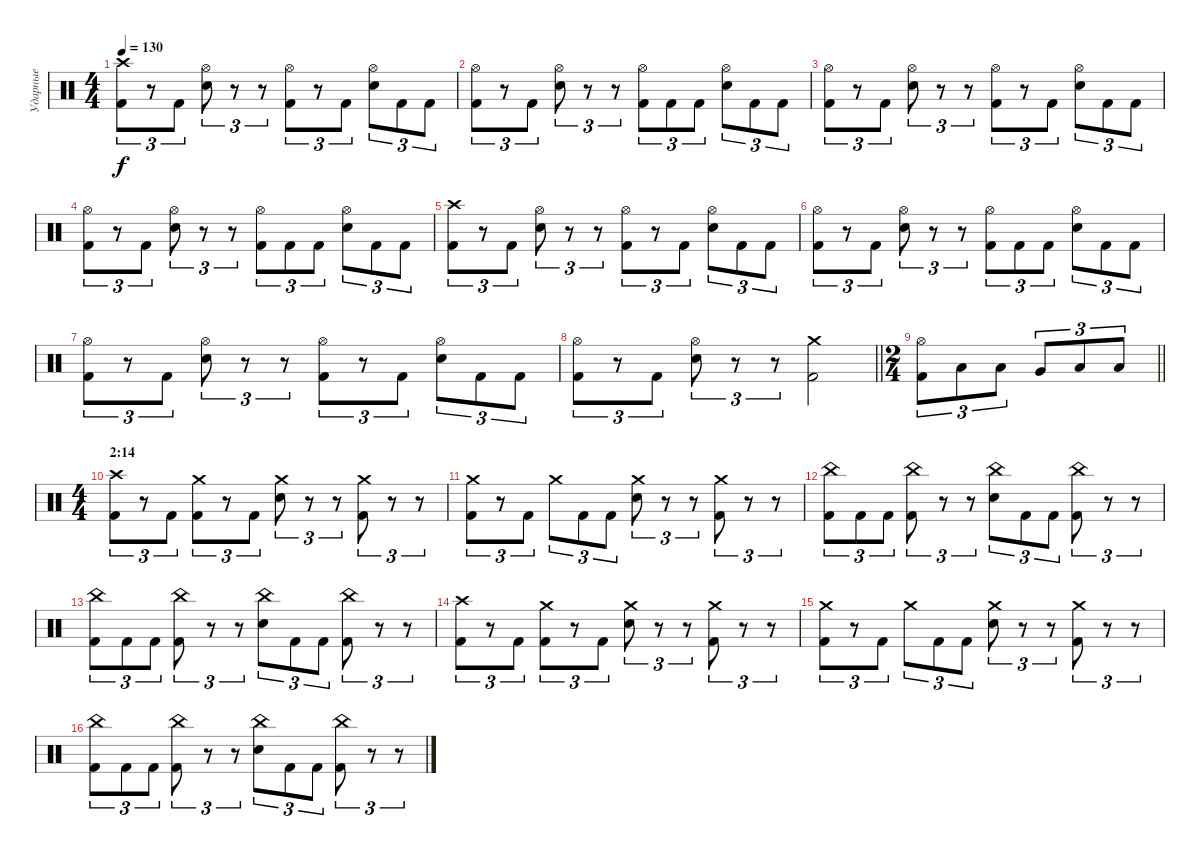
\track ("Ударные" "Ударные") {instrument percussion}
\staff {score}
\articulation defaults
\ts (4 4)
\tempo 130
\clef neutral
\ks c
("Crash high (hit)" "Kick (hit) 2").8{tu (3 2) dy f} r.8{tu (3 2)} "Kick (hit) 2".8{tu (3 2)} ("Hi-Hat (open)" "Electric Snare (hit)").8{tu (3 2)} r.8{tu (3 2)} r.8{tu (3 2)} ("Hi-Hat (open)" "Kick (hit) 2").8{tu (3 2)} r.8{tu (3 2)} "Kick (hit) 2".8{tu (3 2)} ("Hi-Hat (open)" "Electric Snare (hit)").8{tu (3 2)} "Kick (hit) 2".8{tu (3 2)} "Kick (hit) 2".8{tu (3 2)} |
("Hi-Hat (open)" "Kick (hit) 2").8{tu (3 2)} r.8{tu (3 2)} "Kick (hit) 2".8{tu (3 2)} ("Hi-Hat (open)" "Electric Snare (hit)").8{tu (3 2)} r.8{tu (3 2)} r.8{tu (3 2)} ("Hi-Hat (open)" "Kick (hit) 2").8{tu (3 2)} "Kick (hit) 2".8{tu (3 2)} "Kick (hit) 2".8{tu (3 2)} ("Hi-Hat (open)" "Electric Snare (hit)").8{tu (3 2)} "Kick (hit) 2".8{tu (3 2)} "Kick (hit) 2".8{tu (3 2)} |
("Hi-Hat (open)" "Kick (hit) 2").8{tu (3 2)} r.8{tu (3 2)} "Kick (hit) 2".8{tu (3 2)} ("Hi-Hat (open)" "Electric Snare (hit)").8{tu (3 2)} r.8{tu (3 2)} r.8{tu (3 2)} ("Hi-Hat (open)" "Kick (hit) 2").8{tu (3 2)} r.8{tu (3 2)} "Kick (hit) 2".8{tu (3 2)} ("Hi-Hat (open)" "Electric Snare (hit)").8{tu (3 2)} "Kick (hit) 2".8{tu (3 2)} "Kick (hit) 2".8{tu (3 2)} |
("Hi-Hat (open)" "Kick (hit) 2").8{tu (3 2)} r.8{tu (3 2)} "Kick (hit) 2".8{tu (3 2)} ("Hi-Hat (open)" "Electric Snare (hit)").8{tu (3 2)} r.8{tu (3 2)} r.8{tu (3 2)} ("Hi-Hat (open)" "Kick (hit) 2").8{tu (3 2)} "Kick (hit) 2".8{tu (3 2)} "Kick (hit) 2".8{tu (3 2)} ("Hi-Hat (open)" "Electric Snare (hit)").8{tu (3 2)} "Kick (hit) 2".8{tu (3 2)} "Kick (hit) 2".8{tu (3 2)} |
("Crash high (hit)" "Kick (hit) 2").8{tu (3 2)} r.8{tu (3 2)} "Kick (hit) 2".8{tu (3 2)} ("Hi-Hat (open)" "Electric Snare (hit)").8{tu (3 2)} r.8{tu (3 2)} r.8{tu (3 2)} ("Hi-Hat (open)" "Kick (hit) 2").8{tu (3 2)} r.8{tu (3 2)} "Kick (hit) 2".8{tu (3 2)} ("Hi-Hat (open)" "Electric Snare (hit)").8{tu (3 2)} "Kick (hit) 2".8{tu (3 2)} "Kick (hit) 2".8{tu (3 2)} |
("Hi-Hat (open)" "Kick (hit) 2").8{tu (3 2)} r.8{tu (3 2)} "Kick (hit) 2".8{tu (3 2)} ("Hi-Hat (open)" "Electric Snare (hit)").8{tu (3 2)} r.8{tu (3 2)} r.8{tu (3 2)} ("Hi-Hat (open)" "Kick (hit) 2").8{tu (3 2)} "Kick (hit) 2".8{tu (3 2)} "Kick (hit) 2".8{tu (3 2)} ("Hi-Hat (open)" "Electric Snare (hit)").8{tu (3 2)} "Kick (hit) 2".8{tu (3 2)} "Kick (hit) 2".8{tu (3 2)} |
("Hi-Hat (open)" "Kick (hit) 2").8{tu (3 2)} r.8{tu (3 2)} "Kick (hit) 2".8{tu (3 2)} ("Hi-Hat (open)" "Electric Snare (hit)").8{tu (3 2)} r.8{tu (3 2)} r.8{tu (3 2)} ("Hi-Hat (open)" "Kick (hit) 2").8{tu (3 2)} r.8{tu (3 2)} "Kick (hit) 2".8{tu (3 2)} ("Hi-Hat (open)" "Electric Snare (hit)").8{tu (3 2)} "Kick (hit) 2".8{tu (3 2)} "Kick (hit) 2".8{tu (3 2)} |
\barLineRight lightlight
("Hi-Hat (open)" "Kick (hit) 2").8{tu (3 2)} r.8{tu (3 2)} "Kick (hit) 2".8{tu (3 2)} ("Hi-Hat (open)" "Electric Snare (hit)").8{tu (3 2)} r.8{tu (3 2)} r.8{tu (3 2)} ("Crash medium (hit)" "Kick (hit) 2").2 |
\ts (2 4)
\barLineRight lightlight
("Hi-Hat (open)" "Kick (hit) 2").8{tu (3 2)} "Low Tom (hit)".8{tu (3 2)} "Low Tom (hit)".8{tu (3 2)} "Very Low Tom (hit)".8{tu (3 2)} "Low Floor Tom (hit)".8{tu (3 2)} "Low Floor Tom (hit)".8{tu (3 2)} |
\ts (4 4)
\section ("" "2:14")
("Crash high (hit)" "Kick (hit) 2").8{tu (3 2)} r.8{tu (3 2)} "Kick (hit) 2".8{tu (3 2)} ("Crash medium (hit)" "Kick (hit) 2").8{tu (3 2)} r.8{tu (3 2)} "Kick (hit) 2".8{tu (3 2)} ("Crash medium (hit)" "Electric Snare (hit)").8{tu (3 2)} r.8{tu (3 2)} r.8{tu (3 2)} ("Crash medium (hit)" "Kick (hit) 2").8{tu (3 2)} r.8{tu (3 2)} r.8{tu (3 2)} |
("Crash medium (hit)" "Kick (hit) 2").8{tu (3 2)} r.8{tu (3 2)} "Kick (hit) 2".8{tu (3 2)} "Crash medium (hit)".8{tu (3 2)} "Kick (hit) 2".8{tu (3 2)} "Kick (hit) 2".8{tu (3 2)} ("Crash medium (hit)" "Electric Snare (hit)").8{tu (3 2)} r.8{tu (3 2)} r.8{tu (3 2)} ("Crash medium (hit)" "Kick (hit) 2").8{tu (3 2)} r.8{tu (3 2)} r.8{tu (3 2)} |
("China (hit)" "Kick (hit) 2").8{tu (3 2)} "Kick (hit) 2".8{tu (3 2)} "Kick (hit) 2".8{tu (3 2)} ("China (hit)" "Kick (hit) 2").8{tu (3 2)} r.8{tu (3 2)} r.8{tu (3 2)} ("China (hit)" "Electric Snare (hit)").8{tu (3 2)} "Kick (hit) 2".8{tu (3 2)} "Kick (hit) 2".8{tu (3 2)} ("China (hit)" "Kick (hit) 2").8{tu (3 2)} r.8{tu (3 2)} r.8{tu (3 2)} |
("China (hit)" "Kick (hit) 2").8{tu (3 2)} "Kick (hit) 2".8{tu (3 2)} "Kick (hit) 2".8{tu (3 2)} ("China (hit)" "Kick (hit) 2").8{tu (3 2)} r.8{tu (3 2)} r.8{tu (3 2)} ("China (hit)" "Electric Snare (hit)").8{tu (3 2)} "Kick (hit) 2".8{tu (3 2)} "Kick (hit) 2".8{tu (3 2)} ("China (hit)" "Kick (hit) 2").8{tu (3 2)} r.8{tu (3 2)} r.8{tu (3 2)} |
("Crash high (hit)" "Kick (hit) 2").8{tu (3 2)} r.8{tu (3 2)} "Kick (hit) 2".8{tu (3 2)} ("Crash medium (hit)" "Kick (hit) 2").8{tu (3 2)} r.8{tu (3 2)} "Kick (hit) 2".8{tu (3 2)} ("Crash medium (hit)" "Electric Snare (hit)").8{tu (3 2)} r.8{tu (3 2)} r.8{tu (3 2)} ("Crash medium (hit)" "Kick (hit) 2").8{tu (3 2)} r.8{tu (3 2)} r.8{tu (3 2)} |
("Crash medium (hit)" "Kick (hit) 2").8{tu (3 2)} r.8{tu (3 2)} "Kick (hit) 2".8{tu (3 2)} "Crash medium (hit)".8{tu (3 2)} "Kick (hit) 2".8{tu (3 2)} "Kick (hit) 2".8{tu (3 2)} ("Crash medium (hit)" "Electric Snare (hit)").8{tu (3 2)} r.8{tu (3 2)} r.8{tu (3 2)} ("Crash medium (hit)" "Kick (hit) 2").8{tu (3 2)} r.8{tu (3 2)} r.8{tu (3 2)} |
("China (hit)" "Kick (hit) 2").8{tu (3 2)} "Kick (hit) 2".8{tu (3 2)} "Kick (hit) 2".8{tu (3 2)} ("China (hit)" "Kick (hit) 2").8{tu (3 2)} r.8{tu (3 2)} r.8{tu (3 2)} ("China (hit)" "Electric Snare (hit)").8{tu (3 2)} "Kick (hit) 2".8{tu (3 2)} "Kick (hit) 2".8{tu (3 2)} ("China (hit)" "Kick (hit) 2").8{tu (3 2)} r.8{tu (3 2)} r.8{tu (3 2)}
